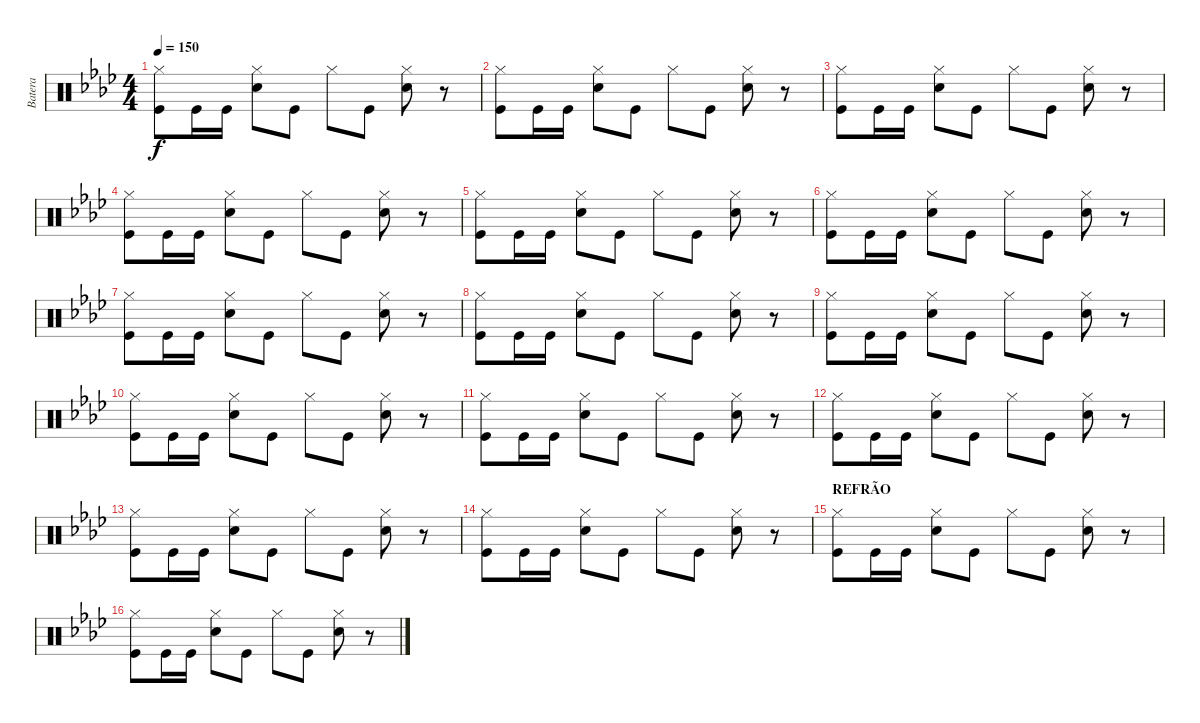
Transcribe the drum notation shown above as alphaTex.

\track ("Batera" "Batera") {instrument percussion}
\staff {score}
\articulation defaults
\ts (4 4)
\tempo 150
\clef neutral
\ks fminor
("Hi-Hat (closed)" "Kick (hit)").8{dy f} "Kick (hit)".16 "Kick (hit)".16 ("Hi-Hat (closed)" "Snare (hit) 2").8 "Kick (hit)".8 "Hi-Hat (closed)".8 "Kick (hit)".8 ("Hi-Hat (closed)" "Snare (hit) 2").8 r.8 |
("Hi-Hat (closed)" "Kick (hit)").8 "Kick (hit)".16 "Kick (hit)".16 ("Hi-Hat (closed)" "Snare (hit) 2").8 "Kick (hit)".8 "Hi-Hat (closed)".8 "Kick (hit)".8 ("Hi-Hat (closed)" "Snare (hit) 2").8 r.8 |
("Hi-Hat (closed)" "Kick (hit)").8 "Kick (hit)".16 "Kick (hit)".16 ("Hi-Hat (closed)" "Snare (hit) 2").8 "Kick (hit)".8 "Hi-Hat (closed)".8 "Kick (hit)".8 ("Hi-Hat (closed)" "Snare (hit) 2").8 r.8 |
("Hi-Hat (closed)" "Kick (hit)").8 "Kick (hit)".16 "Kick (hit)".16 ("Hi-Hat (closed)" "Snare (hit) 2").8 "Kick (hit)".8 "Hi-Hat (closed)".8 "Kick (hit)".8 ("Hi-Hat (closed)" "Snare (hit) 2").8 r.8 |
("Hi-Hat (closed)" "Kick (hit)").8 "Kick (hit)".16 "Kick (hit)".16 ("Hi-Hat (closed)" "Snare (hit) 2").8 "Kick (hit)".8 "Hi-Hat (closed)".8 "Kick (hit)".8 ("Hi-Hat (closed)" "Snare (hit) 2").8 r.8 |
("Hi-Hat (closed)" "Kick (hit)").8 "Kick (hit)".16 "Kick (hit)".16 ("Hi-Hat (closed)" "Snare (hit) 2").8 "Kick (hit)".8 "Hi-Hat (closed)".8 "Kick (hit)".8 ("Hi-Hat (closed)" "Snare (hit) 2").8 r.8 |
("Hi-Hat (closed)" "Kick (hit)").8 "Kick (hit)".16 "Kick (hit)".16 ("Hi-Hat (closed)" "Snare (hit) 2").8 "Kick (hit)".8 "Hi-Hat (closed)".8 "Kick (hit)".8 ("Hi-Hat (closed)" "Snare (hit) 2").8 r.8 |
("Hi-Hat (closed)" "Kick (hit)").8 "Kick (hit)".16 "Kick (hit)".16 ("Hi-Hat (closed)" "Snare (hit) 2").8 "Kick (hit)".8 "Hi-Hat (closed)".8 "Kick (hit)".8 ("Hi-Hat (closed)" "Snare (hit) 2").8 r.8 |
("Hi-Hat (closed)" "Kick (hit)").8 "Kick (hit)".16 "Kick (hit)".16 ("Hi-Hat (closed)" "Snare (hit) 2").8 "Kick (hit)".8 "Hi-Hat (closed)".8 "Kick (hit)".8 ("Hi-Hat (closed)" "Snare (hit) 2").8 r.8 |
("Hi-Hat (closed)" "Kick (hit)").8 "Kick (hit)".16 "Kick (hit)".16 ("Hi-Hat (closed)" "Snare (hit) 2").8 "Kick (hit)".8 "Hi-Hat (closed)".8 "Kick (hit)".8 ("Hi-Hat (closed)" "Snare (hit) 2").8 r.8 |
("Hi-Hat (closed)" "Kick (hit)").8 "Kick (hit)".16 "Kick (hit)".16 ("Hi-Hat (closed)" "Snare (hit) 2").8 "Kick (hit)".8 "Hi-Hat (closed)".8 "Kick (hit)".8 ("Hi-Hat (closed)" "Snare (hit) 2").8 r.8 |
("Hi-Hat (closed)" "Kick (hit)").8 "Kick (hit)".16 "Kick (hit)".16 ("Hi-Hat (closed)" "Snare (hit) 2").8 "Kick (hit)".8 "Hi-Hat (closed)".8 "Kick (hit)".8 ("Hi-Hat (closed)" "Snare (hit) 2").8 r.8 |
("Hi-Hat (closed)" "Kick (hit)").8 "Kick (hit)".16 "Kick (hit)".16 ("Hi-Hat (closed)" "Snare (hit) 2").8 "Kick (hit)".8 "Hi-Hat (closed)".8 "Kick (hit)".8 ("Hi-Hat (closed)" "Snare (hit) 2").8 r.8 |
("Hi-Hat (closed)" "Kick (hit)").8 "Kick (hit)".16 "Kick (hit)".16 ("Hi-Hat (closed)" "Snare (hit) 2").8 "Kick (hit)".8 "Hi-Hat (closed)".8 "Kick (hit)".8 ("Hi-Hat (closed)" "Snare (hit) 2").8 r.8 |
\section ("" "REFRÃO")
("Hi-Hat (closed)" "Kick (hit)").8 "Kick (hit)".16 "Kick (hit)".16 ("Hi-Hat (closed)" "Snare (hit) 2").8 "Kick (hit)".8 "Hi-Hat (closed)".8 "Kick (hit)".8 ("Hi-Hat (closed)" "Snare (hit) 2").8 r.8 |
("Hi-Hat (closed)" "Kick (hit)").8 "Kick (hit)".16 "Kick (hit)".16 ("Hi-Hat (closed)" "Snare (hit) 2").8 "Kick (hit)".8 "Hi-Hat (closed)".8 "Kick (hit)".8 ("Hi-Hat (closed)" "Snare (hit) 2").8 r.8
